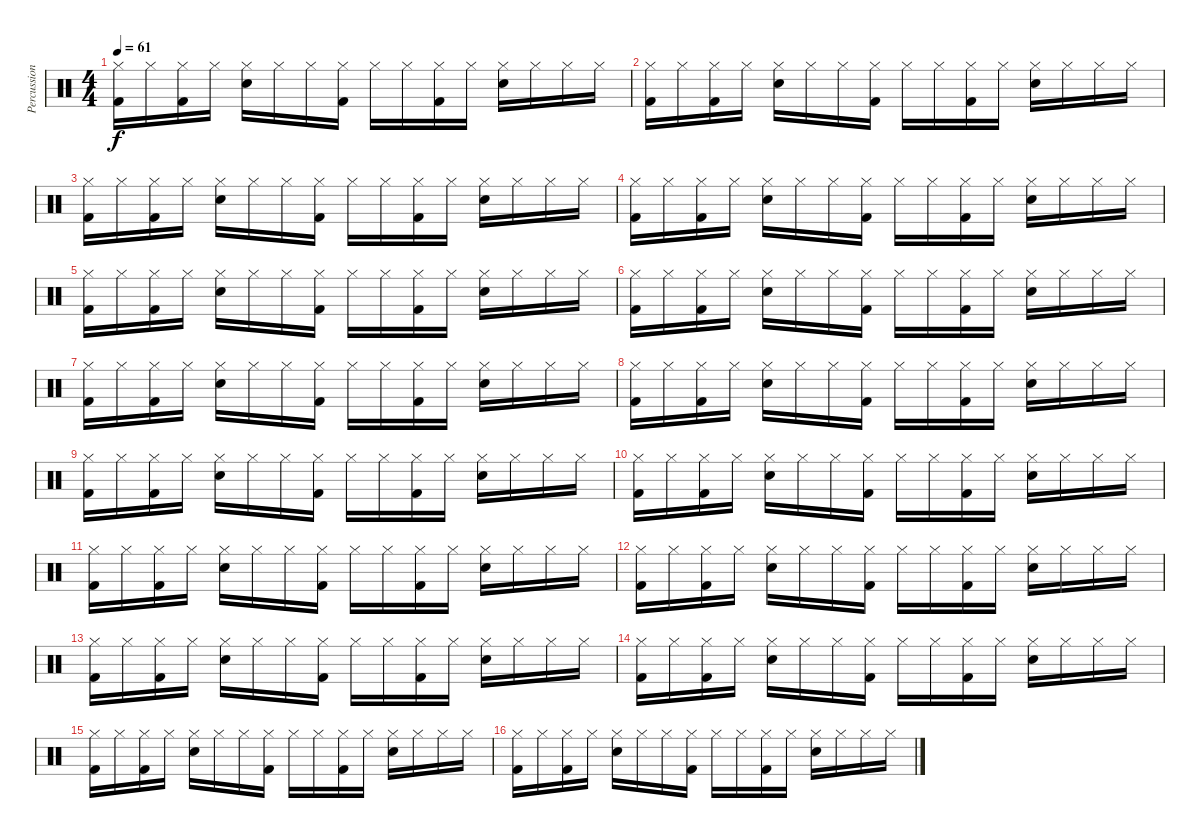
\track ("Percussion" "Percussion") {instrument percussion}
\staff {score}
\articulation defaults
\ts (4 4)
\tempo 61
\clef neutral
\ks c
("Kick (hit) 2" "Hi-Hat (closed)").16{dy f} "Hi-Hat (closed)".16 ("Kick (hit) 2" "Hi-Hat (closed)").16 "Hi-Hat (closed)".16 ("Electric Snare (hit)" "Hi-Hat (closed)").16 "Hi-Hat (closed)".16 "Hi-Hat (closed)".16 ("Kick (hit) 2" "Hi-Hat (closed)").16 "Hi-Hat (closed)".16 "Hi-Hat (closed)".16 ("Kick (hit) 2" "Hi-Hat (closed)").16 "Hi-Hat (closed)".16 ("Electric Snare (hit)" "Hi-Hat (closed)").16 "Hi-Hat (closed)".16 "Hi-Hat (closed)".16 "Hi-Hat (closed)".16 |
("Kick (hit) 2" "Hi-Hat (closed)").16 "Hi-Hat (closed)".16 ("Kick (hit) 2" "Hi-Hat (closed)").16 "Hi-Hat (closed)".16 ("Electric Snare (hit)" "Hi-Hat (closed)").16 "Hi-Hat (closed)".16 "Hi-Hat (closed)".16 ("Kick (hit) 2" "Hi-Hat (closed)").16 "Hi-Hat (closed)".16 "Hi-Hat (closed)".16 ("Kick (hit) 2" "Hi-Hat (closed)").16 "Hi-Hat (closed)".16 ("Electric Snare (hit)" "Hi-Hat (closed)").16 "Hi-Hat (closed)".16 "Hi-Hat (closed)".16 "Hi-Hat (closed)".16 |
("Kick (hit) 2" "Hi-Hat (closed)").16 "Hi-Hat (closed)".16 ("Kick (hit) 2" "Hi-Hat (closed)").16 "Hi-Hat (closed)".16 ("Electric Snare (hit)" "Hi-Hat (closed)").16 "Hi-Hat (closed)".16 "Hi-Hat (closed)".16 ("Kick (hit) 2" "Hi-Hat (closed)").16 "Hi-Hat (closed)".16 "Hi-Hat (closed)".16 ("Kick (hit) 2" "Hi-Hat (closed)").16 "Hi-Hat (closed)".16 ("Electric Snare (hit)" "Hi-Hat (closed)").16 "Hi-Hat (closed)".16 "Hi-Hat (closed)".16 "Hi-Hat (closed)".16 |
("Kick (hit) 2" "Hi-Hat (closed)").16 "Hi-Hat (closed)".16 ("Kick (hit) 2" "Hi-Hat (closed)").16 "Hi-Hat (closed)".16 ("Electric Snare (hit)" "Hi-Hat (closed)").16 "Hi-Hat (closed)".16 "Hi-Hat (closed)".16 ("Kick (hit) 2" "Hi-Hat (closed)").16 "Hi-Hat (closed)".16 "Hi-Hat (closed)".16 ("Kick (hit) 2" "Hi-Hat (closed)").16 "Hi-Hat (closed)".16 ("Electric Snare (hit)" "Hi-Hat (closed)").16 "Hi-Hat (closed)".16 "Hi-Hat (closed)".16 "Hi-Hat (closed)".16 |
("Kick (hit) 2" "Hi-Hat (closed)").16 "Hi-Hat (closed)".16 ("Kick (hit) 2" "Hi-Hat (closed)").16 "Hi-Hat (closed)".16 ("Electric Snare (hit)" "Hi-Hat (closed)").16 "Hi-Hat (closed)".16 "Hi-Hat (closed)".16 ("Kick (hit) 2" "Hi-Hat (closed)").16 "Hi-Hat (closed)".16 "Hi-Hat (closed)".16 ("Kick (hit) 2" "Hi-Hat (closed)").16 "Hi-Hat (closed)".16 ("Electric Snare (hit)" "Hi-Hat (closed)").16 "Hi-Hat (closed)".16 "Hi-Hat (closed)".16 "Hi-Hat (closed)".16 |
("Kick (hit) 2" "Hi-Hat (closed)").16 "Hi-Hat (closed)".16 ("Kick (hit) 2" "Hi-Hat (closed)").16 "Hi-Hat (closed)".16 ("Electric Snare (hit)" "Hi-Hat (closed)").16 "Hi-Hat (closed)".16 "Hi-Hat (closed)".16 ("Kick (hit) 2" "Hi-Hat (closed)").16 "Hi-Hat (closed)".16 "Hi-Hat (closed)".16 ("Kick (hit) 2" "Hi-Hat (closed)").16 "Hi-Hat (closed)".16 ("Electric Snare (hit)" "Hi-Hat (closed)").16 "Hi-Hat (closed)".16 "Hi-Hat (closed)".16 "Hi-Hat (closed)".16 |
("Kick (hit) 2" "Hi-Hat (closed)").16 "Hi-Hat (closed)".16 ("Kick (hit) 2" "Hi-Hat (closed)").16 "Hi-Hat (closed)".16 ("Electric Snare (hit)" "Hi-Hat (closed)").16 "Hi-Hat (closed)".16 "Hi-Hat (closed)".16 ("Kick (hit) 2" "Hi-Hat (closed)").16 "Hi-Hat (closed)".16 "Hi-Hat (closed)".16 ("Kick (hit) 2" "Hi-Hat (closed)").16 "Hi-Hat (closed)".16 ("Electric Snare (hit)" "Hi-Hat (closed)").16 "Hi-Hat (closed)".16 "Hi-Hat (closed)".16 "Hi-Hat (closed)".16 |
("Kick (hit) 2" "Hi-Hat (closed)").16 "Hi-Hat (closed)".16 ("Kick (hit) 2" "Hi-Hat (closed)").16 "Hi-Hat (closed)".16 ("Electric Snare (hit)" "Hi-Hat (closed)").16 "Hi-Hat (closed)".16 "Hi-Hat (closed)".16 ("Kick (hit) 2" "Hi-Hat (closed)").16 "Hi-Hat (closed)".16 "Hi-Hat (closed)".16 ("Kick (hit) 2" "Hi-Hat (closed)").16 "Hi-Hat (closed)".16 ("Electric Snare (hit)" "Hi-Hat (closed)").16 "Hi-Hat (closed)".16 "Hi-Hat (closed)".16 "Hi-Hat (closed)".16 |
("Kick (hit) 2" "Hi-Hat (closed)").16 "Hi-Hat (closed)".16 ("Kick (hit) 2" "Hi-Hat (closed)").16 "Hi-Hat (closed)".16 ("Electric Snare (hit)" "Hi-Hat (closed)").16 "Hi-Hat (closed)".16 "Hi-Hat (closed)".16 ("Kick (hit) 2" "Hi-Hat (closed)").16 "Hi-Hat (closed)".16 "Hi-Hat (closed)".16 ("Kick (hit) 2" "Hi-Hat (closed)").16 "Hi-Hat (closed)".16 ("Electric Snare (hit)" "Hi-Hat (closed)").16 "Hi-Hat (closed)".16 "Hi-Hat (closed)".16 "Hi-Hat (closed)".16 |
("Kick (hit) 2" "Hi-Hat (closed)").16 "Hi-Hat (closed)".16 ("Kick (hit) 2" "Hi-Hat (closed)").16 "Hi-Hat (closed)".16 ("Electric Snare (hit)" "Hi-Hat (closed)").16 "Hi-Hat (closed)".16 "Hi-Hat (closed)".16 ("Kick (hit) 2" "Hi-Hat (closed)").16 "Hi-Hat (closed)".16 "Hi-Hat (closed)".16 ("Kick (hit) 2" "Hi-Hat (closed)").16 "Hi-Hat (closed)".16 ("Electric Snare (hit)" "Hi-Hat (closed)").16 "Hi-Hat (closed)".16 "Hi-Hat (closed)".16 "Hi-Hat (closed)".16 |
("Kick (hit) 2" "Hi-Hat (closed)").16 "Hi-Hat (closed)".16 ("Kick (hit) 2" "Hi-Hat (closed)").16 "Hi-Hat (closed)".16 ("Electric Snare (hit)" "Hi-Hat (closed)").16 "Hi-Hat (closed)".16 "Hi-Hat (closed)".16 ("Kick (hit) 2" "Hi-Hat (closed)").16 "Hi-Hat (closed)".16 "Hi-Hat (closed)".16 ("Kick (hit) 2" "Hi-Hat (closed)").16 "Hi-Hat (closed)".16 ("Electric Snare (hit)" "Hi-Hat (closed)").16 "Hi-Hat (closed)".16 "Hi-Hat (closed)".16 "Hi-Hat (closed)".16 |
("Kick (hit) 2" "Hi-Hat (closed)").16 "Hi-Hat (closed)".16 ("Kick (hit) 2" "Hi-Hat (closed)").16 "Hi-Hat (closed)".16 ("Electric Snare (hit)" "Hi-Hat (closed)").16 "Hi-Hat (closed)".16 "Hi-Hat (closed)".16 ("Kick (hit) 2" "Hi-Hat (closed)").16 "Hi-Hat (closed)".16 "Hi-Hat (closed)".16 ("Kick (hit) 2" "Hi-Hat (closed)").16 "Hi-Hat (closed)".16 ("Electric Snare (hit)" "Hi-Hat (closed)").16 "Hi-Hat (closed)".16 "Hi-Hat (closed)".16 "Hi-Hat (closed)".16 |
("Kick (hit) 2" "Hi-Hat (closed)").16 "Hi-Hat (closed)".16 ("Kick (hit) 2" "Hi-Hat (closed)").16 "Hi-Hat (closed)".16 ("Electric Snare (hit)" "Hi-Hat (closed)").16 "Hi-Hat (closed)".16 "Hi-Hat (closed)".16 ("Kick (hit) 2" "Hi-Hat (closed)").16 "Hi-Hat (closed)".16 "Hi-Hat (closed)".16 ("Kick (hit) 2" "Hi-Hat (closed)").16 "Hi-Hat (closed)".16 ("Electric Snare (hit)" "Hi-Hat (closed)").16 "Hi-Hat (closed)".16 "Hi-Hat (closed)".16 "Hi-Hat (closed)".16 |
("Kick (hit) 2" "Hi-Hat (closed)").16 "Hi-Hat (closed)".16 ("Kick (hit) 2" "Hi-Hat (closed)").16 "Hi-Hat (closed)".16 ("Electric Snare (hit)" "Hi-Hat (closed)").16 "Hi-Hat (closed)".16 "Hi-Hat (closed)".16 ("Kick (hit) 2" "Hi-Hat (closed)").16 "Hi-Hat (closed)".16 "Hi-Hat (closed)".16 ("Kick (hit) 2" "Hi-Hat (closed)").16 "Hi-Hat (closed)".16 ("Electric Snare (hit)" "Hi-Hat (closed)").16 "Hi-Hat (closed)".16 "Hi-Hat (closed)".16 "Hi-Hat (closed)".16 |
("Kick (hit) 2" "Hi-Hat (closed)").16 "Hi-Hat (closed)".16 ("Kick (hit) 2" "Hi-Hat (closed)").16 "Hi-Hat (closed)".16 ("Electric Snare (hit)" "Hi-Hat (closed)").16 "Hi-Hat (closed)".16 "Hi-Hat (closed)".16 ("Kick (hit) 2" "Hi-Hat (closed)").16 "Hi-Hat (closed)".16 "Hi-Hat (closed)".16 ("Kick (hit) 2" "Hi-Hat (closed)").16 "Hi-Hat (closed)".16 ("Electric Snare (hit)" "Hi-Hat (closed)").16 "Hi-Hat (closed)".16 "Hi-Hat (closed)".16 "Hi-Hat (closed)".16 |
("Kick (hit) 2" "Hi-Hat (closed)").16 "Hi-Hat (closed)".16 ("Kick (hit) 2" "Hi-Hat (closed)").16 "Hi-Hat (closed)".16 ("Electric Snare (hit)" "Hi-Hat (closed)").16 "Hi-Hat (closed)".16 "Hi-Hat (closed)".16 ("Kick (hit) 2" "Hi-Hat (closed)").16 "Hi-Hat (closed)".16 "Hi-Hat (closed)".16 ("Kick (hit) 2" "Hi-Hat (closed)").16 "Hi-Hat (closed)".16 ("Electric Snare (hit)" "Hi-Hat (closed)").16 "Hi-Hat (closed)".16 "Hi-Hat (closed)".16 "Hi-Hat (closed)".16
